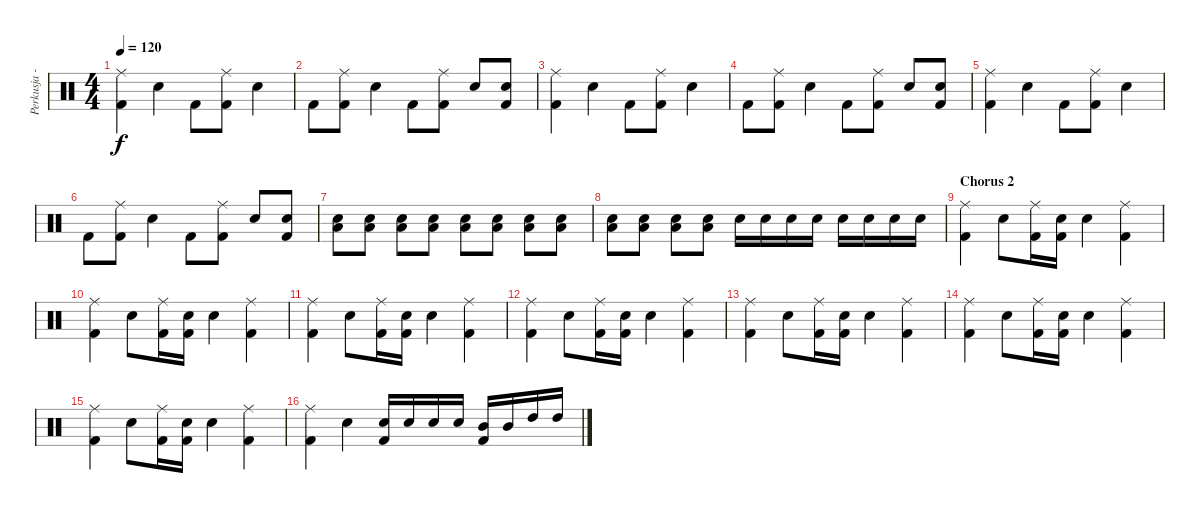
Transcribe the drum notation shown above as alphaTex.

\track ("Perkusja - Mielony" "Perkusja -") {instrument percussion}
\staff {score}
\articulation defaults
\ts (4 4)
\tempo 120
\clef neutral
\ks c
("Ride (middle)" "Kick (hit) 2").4{dy f} "Snare (hit) 2".4 "Kick (hit) 2".8 ("Ride (middle)" "Kick (hit) 2").8 "Snare (hit) 2".4 |
"Kick (hit) 2".8 ("Ride (middle)" "Kick (hit) 2").8 "Snare (hit) 2".4 "Kick (hit) 2".8 ("Ride (middle)" "Kick (hit) 2").8 "Snare (hit) 2".8 ("Snare (hit) 2" "Kick (hit) 2").8 |
("Ride (middle)" "Kick (hit) 2").4 "Snare (hit) 2".4 "Kick (hit) 2".8 ("Ride (middle)" "Kick (hit) 2").8 "Snare (hit) 2".4 |
"Kick (hit) 2".8 ("Ride (middle)" "Kick (hit) 2").8 "Snare (hit) 2".4 "Kick (hit) 2".8 ("Ride (middle)" "Kick (hit) 2").8 "Snare (hit) 2".8 ("Snare (hit) 2" "Kick (hit) 2").8 |
("Ride (middle)" "Kick (hit) 2").4 "Snare (hit) 2".4 "Kick (hit) 2".8 ("Ride (middle)" "Kick (hit) 2").8 "Snare (hit) 2".4 |
"Kick (hit) 2".8 ("Ride (middle)" "Kick (hit) 2").8 "Snare (hit) 2".4 "Kick (hit) 2".8 ("Ride (middle)" "Kick (hit) 2").8 "Snare (hit) 2".8 ("Snare (hit) 2" "Kick (hit) 2").8 |
("Snare (hit) 2" "Low Tom (hit)").8 ("Snare (hit) 2" "Low Tom (hit)").8 ("Snare (hit) 2" "Low Tom (hit)").8 ("Snare (hit) 2" "Low Tom (hit)").8 ("Snare (hit) 2" "Low Tom (hit)").8 ("Snare (hit) 2" "Low Tom (hit)").8 ("Snare (hit) 2" "Low Tom (hit)").8 ("Snare (hit) 2" "Low Tom (hit)").8 |
("Snare (hit) 2" "Low Tom (hit)").8 ("Snare (hit) 2" "Low Tom (hit)").8 ("Snare (hit) 2" "Low Tom (hit)").8 ("Snare (hit) 2" "Low Tom (hit)").8 "Snare (hit) 2".16 "Snare (hit) 2".16 "Snare (hit) 2".16 "Snare (hit) 2".16 "Snare (hit) 2".16 "Snare (hit) 2".16 "Snare (hit) 2".16 "Snare (hit) 2".16 |
\section ("" "Chorus 2")
("Ride (middle)" "Kick (hit) 2").4 "Snare (hit) 2".8 ("Ride (middle)" "Kick (hit) 2").16 ("Snare (hit) 2" "Kick (hit) 2").16 "Snare (hit) 2".4 ("Ride (middle)" "Kick (hit) 2").4 |
("Ride (middle)" "Kick (hit) 2").4 "Snare (hit) 2".8 ("Ride (middle)" "Kick (hit) 2").16 ("Snare (hit) 2" "Kick (hit) 2").16 "Snare (hit) 2".4 ("Ride (middle)" "Kick (hit) 2").4 |
("Ride (middle)" "Kick (hit) 2").4 "Snare (hit) 2".8 ("Ride (middle)" "Kick (hit) 2").16 ("Snare (hit) 2" "Kick (hit) 2").16 "Snare (hit) 2".4 ("Ride (middle)" "Kick (hit) 2").4 |
("Ride (middle)" "Kick (hit) 2").4 "Snare (hit) 2".8 ("Ride (middle)" "Kick (hit) 2").16 ("Snare (hit) 2" "Kick (hit) 2").16 "Snare (hit) 2".4 ("Ride (middle)" "Kick (hit) 2").4 |
("Ride (middle)" "Kick (hit) 2").4 "Snare (hit) 2".8 ("Ride (middle)" "Kick (hit) 2").16 ("Snare (hit) 2" "Kick (hit) 2").16 "Snare (hit) 2".4 ("Ride (middle)" "Kick (hit) 2").4 |
("Ride (middle)" "Kick (hit) 2").4 "Snare (hit) 2".8 ("Ride (middle)" "Kick (hit) 2").16 ("Snare (hit) 2" "Kick (hit) 2").16 "Snare (hit) 2".4 ("Ride (middle)" "Kick (hit) 2").4 |
("Ride (middle)" "Kick (hit) 2").4 "Snare (hit) 2".8 ("Ride (middle)" "Kick (hit) 2").16 ("Snare (hit) 2" "Kick (hit) 2").16 "Snare (hit) 2".4 ("Ride (middle)" "Kick (hit) 2").4 |
("Ride (middle)" "Kick (hit) 2").4 "Snare (hit) 2".4 ("Snare (hit) 2" "Kick (hit) 2").16 "Snare (hit) 2".16 "Snare (hit) 2".16 "Snare (hit) 2".16 ("Mid Tom (hit)" "Kick (hit) 2").16 "Mid Tom (hit)".16 "High Tom (hit)".16 "High Tom (hit)".16
